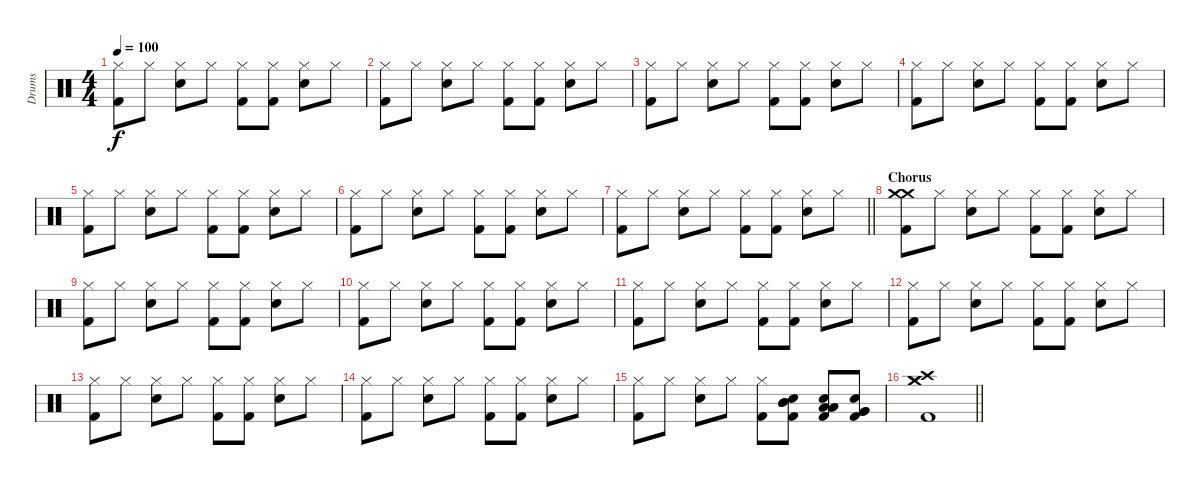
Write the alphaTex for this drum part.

\track ("Drums" "Drums") {instrument percussion}
\staff {score}
\articulation defaults
\ts (4 4)
\tempo 100
\clef neutral
\ks c
("Hi-Hat (closed)" "Kick (hit) 2").8{dy f} "Hi-Hat (closed)".8 ("Hi-Hat (closed)" "Electric Snare (hit)").8 "Hi-Hat (closed)".8 ("Hi-Hat (closed)" "Kick (hit) 2").8 ("Hi-Hat (closed)" "Kick (hit) 2").8 ("Hi-Hat (closed)" "Electric Snare (hit)").8 "Hi-Hat (closed)".8 |
("Hi-Hat (closed)" "Kick (hit) 2").8 "Hi-Hat (closed)".8 ("Hi-Hat (closed)" "Electric Snare (hit)").8 "Hi-Hat (closed)".8 ("Hi-Hat (closed)" "Kick (hit) 2").8 ("Hi-Hat (closed)" "Kick (hit) 2").8 ("Hi-Hat (closed)" "Electric Snare (hit)").8 "Hi-Hat (closed)".8 |
("Hi-Hat (closed)" "Kick (hit) 2").8 "Hi-Hat (closed)".8 ("Hi-Hat (closed)" "Electric Snare (hit)").8 "Hi-Hat (closed)".8 ("Hi-Hat (closed)" "Kick (hit) 2").8 ("Hi-Hat (closed)" "Kick (hit) 2").8 ("Hi-Hat (closed)" "Electric Snare (hit)").8 "Hi-Hat (closed)".8 |
("Hi-Hat (closed)" "Kick (hit) 2").8 "Hi-Hat (closed)".8 ("Hi-Hat (closed)" "Electric Snare (hit)").8 "Hi-Hat (closed)".8 ("Hi-Hat (closed)" "Kick (hit) 2").8 ("Hi-Hat (closed)" "Kick (hit) 2").8 ("Hi-Hat (closed)" "Electric Snare (hit)").8 "Hi-Hat (closed)".8 |
("Hi-Hat (closed)" "Kick (hit) 2").8 "Hi-Hat (closed)".8 ("Hi-Hat (closed)" "Electric Snare (hit)").8 "Hi-Hat (closed)".8 ("Hi-Hat (closed)" "Kick (hit) 2").8 ("Hi-Hat (closed)" "Kick (hit) 2").8 ("Hi-Hat (closed)" "Electric Snare (hit)").8 "Hi-Hat (closed)".8 |
("Hi-Hat (closed)" "Kick (hit) 2").8 "Hi-Hat (closed)".8 ("Hi-Hat (closed)" "Electric Snare (hit)").8 "Hi-Hat (closed)".8 ("Hi-Hat (closed)" "Kick (hit) 2").8 ("Hi-Hat (closed)" "Kick (hit) 2").8 ("Hi-Hat (closed)" "Electric Snare (hit)").8 "Hi-Hat (closed)".8 |
\barLineRight lightlight
("Hi-Hat (closed)" "Kick (hit) 2").8 "Hi-Hat (closed)".8 ("Hi-Hat (closed)" "Electric Snare (hit)").8 "Hi-Hat (closed)".8 ("Hi-Hat (closed)" "Kick (hit) 2").8 ("Hi-Hat (closed)" "Kick (hit) 2").8 ("Hi-Hat (closed)" "Electric Snare (hit)").8 "Hi-Hat (closed)".8 |
\section ("" "Chorus")
("Crash medium (hit)" "Crash medium (hit)" "Kick (hit) 2").8 "Hi-Hat (closed)".8 ("Hi-Hat (closed)" "Electric Snare (hit)").8 "Hi-Hat (closed)".8 ("Hi-Hat (closed)" "Kick (hit) 2").8 ("Hi-Hat (closed)" "Kick (hit) 2").8 ("Hi-Hat (closed)" "Electric Snare (hit)").8 "Hi-Hat (closed)".8 |
("Hi-Hat (closed)" "Kick (hit) 2").8 "Hi-Hat (closed)".8 ("Hi-Hat (closed)" "Electric Snare (hit)").8 "Hi-Hat (closed)".8 ("Hi-Hat (closed)" "Kick (hit) 2").8 ("Hi-Hat (closed)" "Kick (hit) 2").8 ("Hi-Hat (closed)" "Electric Snare (hit)").8 "Hi-Hat (closed)".8 |
("Hi-Hat (closed)" "Kick (hit) 2").8 "Hi-Hat (closed)".8 ("Hi-Hat (closed)" "Electric Snare (hit)").8 "Hi-Hat (closed)".8 ("Hi-Hat (closed)" "Kick (hit) 2").8 ("Hi-Hat (closed)" "Kick (hit) 2").8 ("Hi-Hat (closed)" "Electric Snare (hit)").8 "Hi-Hat (closed)".8 |
("Hi-Hat (closed)" "Kick (hit) 2").8 "Hi-Hat (closed)".8 ("Hi-Hat (closed)" "Electric Snare (hit)").8 "Hi-Hat (closed)".8 ("Hi-Hat (closed)" "Kick (hit) 2").8 ("Hi-Hat (closed)" "Kick (hit) 2").8 ("Hi-Hat (closed)" "Electric Snare (hit)").8 "Hi-Hat (closed)".8 |
("Hi-Hat (closed)" "Kick (hit) 2").8 "Hi-Hat (closed)".8 ("Hi-Hat (closed)" "Electric Snare (hit)").8 "Hi-Hat (closed)".8 ("Hi-Hat (closed)" "Kick (hit) 2").8 ("Hi-Hat (closed)" "Kick (hit) 2").8 ("Hi-Hat (closed)" "Electric Snare (hit)").8 "Hi-Hat (closed)".8 |
("Hi-Hat (closed)" "Kick (hit) 2").8 "Hi-Hat (closed)".8 ("Hi-Hat (closed)" "Electric Snare (hit)").8 "Hi-Hat (closed)".8 ("Hi-Hat (closed)" "Kick (hit) 2").8 ("Hi-Hat (closed)" "Kick (hit) 2").8 ("Hi-Hat (closed)" "Electric Snare (hit)").8 "Hi-Hat (closed)".8 |
("Hi-Hat (closed)" "Kick (hit) 2").8 "Hi-Hat (closed)".8 ("Hi-Hat (closed)" "Electric Snare (hit)").8 "Hi-Hat (closed)".8 ("Hi-Hat (closed)" "Kick (hit) 2").8 ("Hi-Hat (closed)" "Kick (hit) 2").8 ("Hi-Hat (closed)" "Electric Snare (hit)").8 "Hi-Hat (closed)".8 |
("Hi-Hat (closed)" "Kick (hit) 2").8 "Hi-Hat (closed)".8 ("Hi-Hat (closed)" "Electric Snare (hit)").8 "Hi-Hat (closed)".8 ("Hi-Hat (closed)" "Kick (hit) 2").8 ("Mid Tom (hit)" "Mid Tom (hit)" "Electric Snare (hit)" "Kick (hit) 2").8 ("Low Tom (hit)" "Low Tom (hit)" "Electric Snare (hit)" "Kick (hit) 2").8 ("Electric Snare (hit)" "Very Low Tom (hit)" "Very Low Tom (hit)" "Kick (hit) 2").8 |
\barLineRight lightlight
("Crash high (hit)" "Crash medium (hit)" "Crash medium (hit)" "Kick (hit) 2").1
